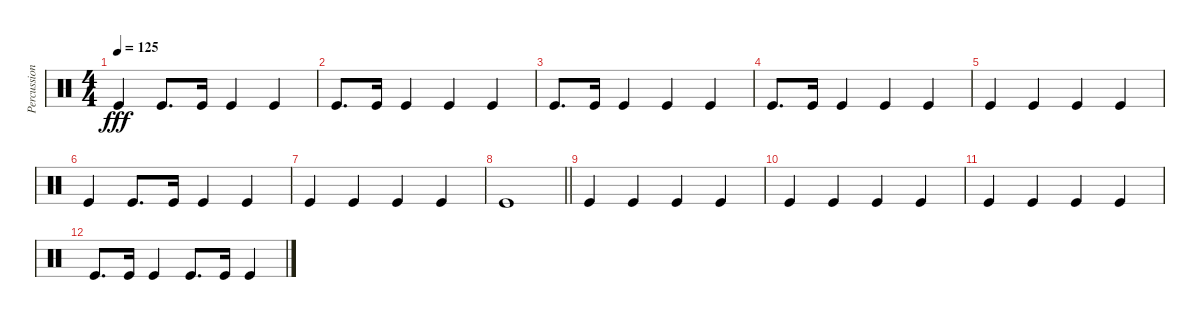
\track ("Percussion" "Percussion") {instrument percussion}
\staff {score}
\articulation defaults
\ts (4 4)
\tempo 125
\clef neutral
\ks c "Kick (hit)".4{dy fff} "Kick (hit)".8{d} "Kick (hit)".16 "Kick (hit)".4 "Kick (hit)".4
|
"Kick (hit)".8{d} "Kick (hit)".16 "Kick (hit)".4 "Kick (hit)".4 "Kick (hit)".4 |
"Kick (hit)".8{d} "Kick (hit)".16 "Kick (hit)".4 "Kick (hit)".4 "Kick (hit)".4 |
"Kick (hit)".8{d} "Kick (hit)".16 "Kick (hit)".4 "Kick (hit)".4 "Kick (hit)".4 |
"Kick (hit)".4 "Kick (hit)".4 "Kick (hit)".4 "Kick (hit)".4 |
"Kick (hit)".4 "Kick (hit)".8{d} "Kick (hit)".16 "Kick (hit)".4 "Kick (hit)".4 |
"Kick (hit)".4 "Kick (hit)".4 "Kick (hit)".4 "Kick (hit)".4 |
\barLineRight lightlight "Kick (hit)".1
|
"Kick (hit)".4 "Kick (hit)".4 "Kick (hit)".4 "Kick (hit)".4 |
"Kick (hit)".4 "Kick (hit)".4 "Kick (hit)".4 "Kick (hit)".4 |
"Kick (hit)".4 "Kick (hit)".4 "Kick (hit)".4 "Kick (hit)".4 |
"Kick (hit)".8{d} "Kick (hit)".16 "Kick (hit)".4 "Kick (hit)".8{d} "Kick (hit)".16 "Kick (hit)".4
